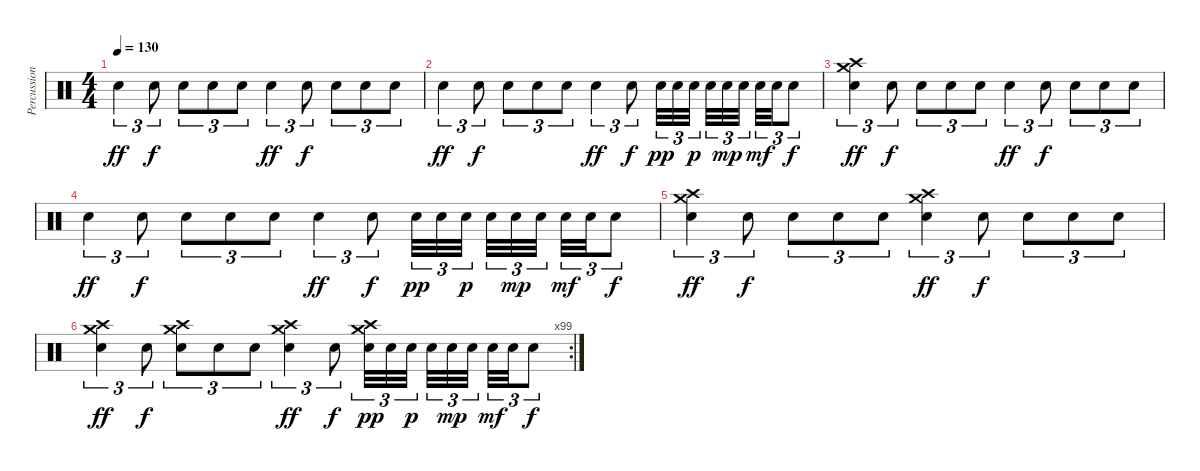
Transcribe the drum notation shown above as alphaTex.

\track ("Percussion" "Percussion") {instrument percussion}
\staff {score}
\articulation defaults
\ts (4 4)
\tempo 130
\clef neutral
\ks c "Electric Snare (hit)".4{tu (3 2) dy ff} "Electric Snare (hit)".8{tu (3 2) dy f} "Electric Snare (hit)".8{tu (3 2)} "Electric Snare (hit)".8{tu (3 2)} "Electric Snare (hit)".8{tu (3 2)} "Electric Snare (hit)".4{tu (3 2) dy ff} "Electric Snare (hit)".8{tu (3 2) dy f} "Electric Snare (hit)".8{tu (3 2)} "Electric Snare (hit)".8{tu (3 2)} "Electric Snare (hit)".8{tu (3 2)}
|
"Electric Snare (hit)".4{tu (3 2) dy ff} "Electric Snare (hit)".8{tu (3 2) dy f} "Electric Snare (hit)".8{tu (3 2)} "Electric Snare (hit)".8{tu (3 2)} "Electric Snare (hit)".8{tu (3 2)} "Electric Snare (hit)".4{tu (3 2) dy ff} "Electric Snare (hit)".8{tu (3 2) dy f} "Electric Snare (hit)".32{tu (3 2) dy pp} "Electric Snare (hit)".32{tu (3 2)} "Electric Snare (hit)".32{tu (3 2) dy p beam splitsecondary} "Electric Snare (hit)".32{tu (3 2)} "Electric Snare (hit)".32{tu (3 2) dy mp} "Electric Snare (hit)".32{tu (3 2) beam splitsecondary} "Electric Snare (hit)".32{tu (3 2) dy mf} "Electric Snare (hit)".32{tu (3 2)} "Electric Snare (hit)".8{tu (3 2) dy f} |
("Crash medium (hit)" "Crash high (hit)" "Electric Snare (hit)").4{tu (3 2) dy ff} "Electric Snare (hit)".8{tu (3 2) dy f} "Electric Snare (hit)".8{tu (3 2)} "Electric Snare (hit)".8{tu (3 2)} "Electric Snare (hit)".8{tu (3 2)} "Electric Snare (hit)".4{tu (3 2) dy ff} "Electric Snare (hit)".8{tu (3 2) dy f} "Electric Snare (hit)".8{tu (3 2)} "Electric Snare (hit)".8{tu (3 2)} "Electric Snare (hit)".8{tu (3 2)} |
"Electric Snare (hit)".4{tu (3 2) dy ff} "Electric Snare (hit)".8{tu (3 2) dy f} "Electric Snare (hit)".8{tu (3 2)} "Electric Snare (hit)".8{tu (3 2)} "Electric Snare (hit)".8{tu (3 2)} "Electric Snare (hit)".4{tu (3 2) dy ff} "Electric Snare (hit)".8{tu (3 2) dy f} "Electric Snare (hit)".32{tu (3 2) dy pp} "Electric Snare (hit)".32{tu (3 2)} "Electric Snare (hit)".32{tu (3 2) dy p beam splitsecondary} "Electric Snare (hit)".32{tu (3 2)} "Electric Snare (hit)".32{tu (3 2) dy mp} "Electric Snare (hit)".32{tu (3 2) beam splitsecondary} "Electric Snare (hit)".32{tu (3 2) dy mf} "Electric Snare (hit)".32{tu (3 2)} "Electric Snare (hit)".8{tu (3 2) dy f} |
("Crash medium (hit)" "Crash high (hit)" "Electric Snare (hit)").4{tu (3 2) dy ff} "Electric Snare (hit)".8{tu (3 2) dy f} "Electric Snare (hit)".8{tu (3 2)} "Electric Snare (hit)".8{tu (3 2)} "Electric Snare (hit)".8{tu (3 2)} ("Crash medium (hit)" "Crash high (hit)" "Electric Snare (hit)").4{tu (3 2) dy ff} "Electric Snare (hit)".8{tu (3 2) dy f} "Electric Snare (hit)".8{tu (3 2)} "Electric Snare (hit)".8{tu (3 2)} "Electric Snare (hit)".8{tu (3 2)} |
\rc 99
("Crash medium (hit)" "Crash high (hit)" "Electric Snare (hit)").4{tu (3 2) dy ff} "Electric Snare (hit)".8{tu (3 2) dy f} ("Crash medium (hit)" "Crash high (hit)" "Electric Snare (hit)").8{tu (3 2)} "Electric Snare (hit)".8{tu (3 2)} "Electric Snare (hit)".8{tu (3 2)} ("Crash medium (hit)" "Crash high (hit)" "Electric Snare (hit)").4{tu (3 2) dy ff} "Electric Snare (hit)".8{tu (3 2) dy f} ("Crash medium (hit)" "Crash high (hit)" "Electric Snare (hit)").32{tu (3 2) dy pp} "Electric Snare (hit)".32{tu (3 2)} "Electric Snare (hit)".32{tu (3 2) dy p beam splitsecondary} "Electric Snare (hit)".32{tu (3 2)} "Electric Snare (hit)".32{tu (3 2) dy mp} "Electric Snare (hit)".32{tu (3 2) beam splitsecondary} "Electric Snare (hit)".32{tu (3 2) dy mf} "Electric Snare (hit)".32{tu (3 2)} "Electric Snare (hit)".8{tu (3 2) dy f}
